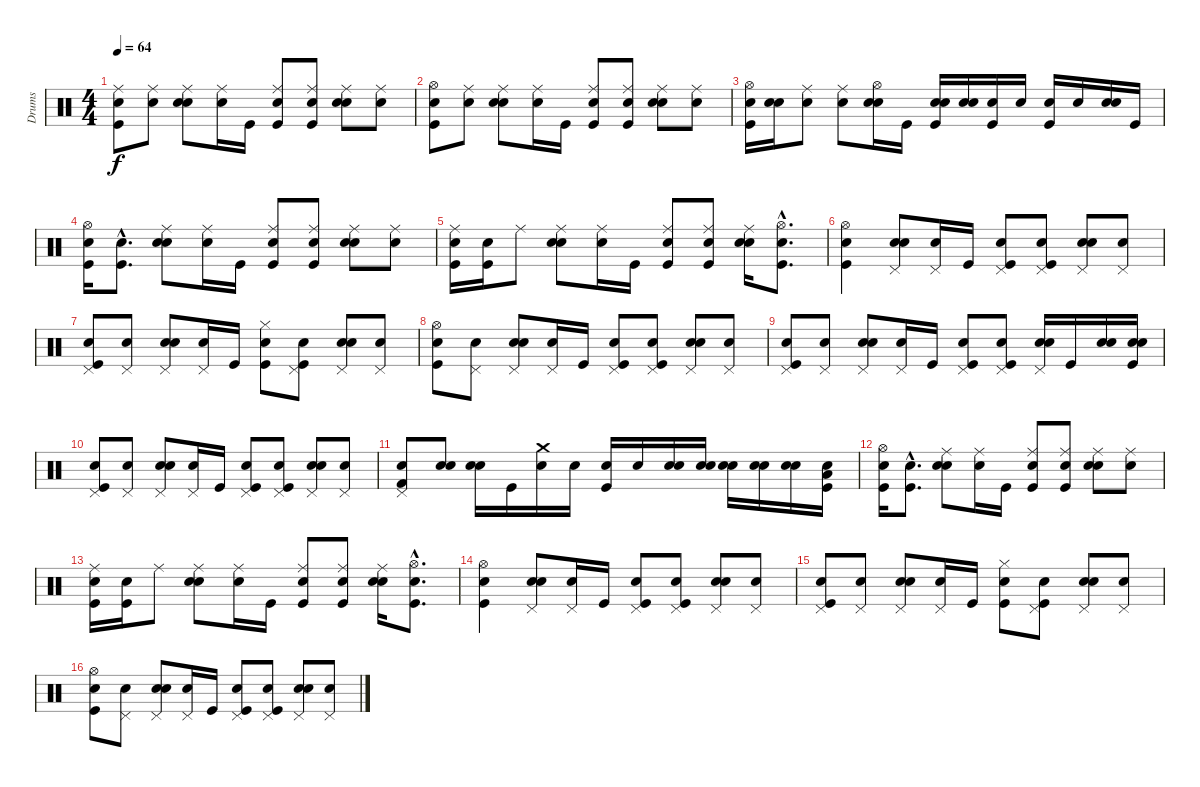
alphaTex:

\track ("Drums" "Drums") {instrument percussion}
\staff {score}
\articulation defaults
\ts (4 4)
\tempo 64
\clef neutral
\ks c
("Snare (hit)" "Ride (middle)" "Kick (hit)").8{dy f} ("Snare (hit)" "Ride (middle)").8 ("Snare (hit)" "Ride (middle)" "Snare (hit) 2").8 ("Snare (hit)" "Ride (middle)").16 "Kick (hit)".16 ("Snare (hit)" "Ride (middle)" "Kick (hit)").8 ("Snare (hit)" "Ride (middle)" "Kick (hit)").8 ("Snare (hit)" "Ride (middle)" "Snare (hit) 2").8 ("Snare (hit)" "Ride (middle)").8 |
("Snare (hit)" "Kick (hit)" "Hi-Hat (open)").8 ("Snare (hit)" "Ride (middle)").8 ("Snare (hit)" "Ride (middle)" "Snare (hit) 2").8 ("Snare (hit)" "Ride (middle)").16 "Kick (hit)".16 ("Snare (hit)" "Ride (middle)" "Kick (hit)").8 ("Snare (hit)" "Ride (middle)" "Kick (hit)").8 ("Snare (hit)" "Ride (middle)" "Snare (hit) 2").8 ("Snare (hit)" "Ride (middle)").8 |
("Snare (hit)" "Kick (hit)" "Hi-Hat (open)").16 ("Snare (hit)" "Snare (hit) 2").16 ("Snare (hit)" "Ride (middle)").8 ("Snare (hit)" "Ride (middle)").8 ("Snare (hit)" "Hi-Hat (open)" "Snare (hit) 2").16 "Kick (hit)".16 ("Snare (hit)" "Kick (hit)" "Snare (hit) 2").16 ("Snare (hit)" "Snare (hit) 2").16 ("Snare (hit)" "Kick (hit)").16 "Electric Snare (hit)".16 ("Snare (hit)" "Kick (hit)").16 "Electric Snare (hit)".16 ("Snare (hit)" "Snare (hit) 2").16 "Kick (hit)".16 |
("Snare (hit)" "Kick (hit)" "Hi-Hat (open)").16 ("Snare (hit)"{hac} "Kick (hit)"{hac}).8{d} ("Snare (hit)" "Ride (middle)" "Snare (hit) 2").8 ("Snare (hit)" "Ride (middle)").16 "Kick (hit)".16 ("Snare (hit)" "Kick (hit)" "Ride (middle)").8 ("Snare (hit)" "Kick (hit)" "Ride (middle)").8 ("Snare (hit)" "Ride (middle)" "Snare (hit) 2").8 ("Snare (hit)" "Ride (middle)").8 |
("Snare (hit)" "Kick (hit)" "Ride (middle)").16 ("Snare (hit)" "Kick (hit)").16 "Ride (middle)".8 ("Snare (hit)" "Ride (middle)" "Snare (hit) 2").8 ("Snare (hit)" "Ride (middle)").16 "Kick (hit)".16 ("Snare (hit)" "Kick (hit)" "Ride (middle)").8 ("Snare (hit)" "Kick (hit)" "Ride (middle)").8 ("Snare (hit)" "Ride (middle)" "Snare (hit) 2").16 ("Snare (hit)"{hac} "Kick (hit)"{hac} "Hi-Hat (open)"{hac}).8{d} |
("Snare (hit)" "Kick (hit)" "Hi-Hat (open)").4 ("Snare (hit)" "Pedal Hi-Hat (hit)" "Snare (hit) 2").8 ("Snare (hit)" "Pedal Hi-Hat (hit)").16 "Kick (hit)".16 ("Snare (hit)" "Kick (hit)" "Pedal Hi-Hat (hit)").8 ("Snare (hit)" "Kick (hit)" "Pedal Hi-Hat (hit)").8 ("Snare (hit)" "Pedal Hi-Hat (hit)" "Snare (hit) 2").8 ("Snare (hit)" "Pedal Hi-Hat (hit)").8 |
("Snare (hit)" "Kick (hit)" "Pedal Hi-Hat (hit)").8 ("Snare (hit)" "Pedal Hi-Hat (hit)").8 ("Snare (hit)" "Pedal Hi-Hat (hit)" "Snare (hit) 2").8 ("Snare (hit)" "Pedal Hi-Hat (hit)").16 "Kick (hit)".16 ("Snare (hit)" "Kick (hit)" "Hi-Hat (closed)").8 ("Snare (hit)" "Kick (hit)" "Pedal Hi-Hat (hit)").8 ("Snare (hit)" "Pedal Hi-Hat (hit)" "Snare (hit) 2").8 ("Snare (hit)" "Pedal Hi-Hat (hit)").8 |
("Snare (hit)" "Kick (hit)" "Hi-Hat (open)").8 ("Snare (hit)" "Pedal Hi-Hat (hit)").8 ("Snare (hit)" "Pedal Hi-Hat (hit)" "Snare (hit) 2").8 ("Snare (hit)" "Pedal Hi-Hat (hit)").16 "Kick (hit)".16 ("Snare (hit)" "Kick (hit)" "Pedal Hi-Hat (hit)").8 ("Snare (hit)" "Kick (hit)" "Pedal Hi-Hat (hit)").8 ("Snare (hit)" "Pedal Hi-Hat (hit)" "Snare (hit) 2").8 ("Snare (hit)" "Pedal Hi-Hat (hit)").8 |
("Snare (hit)" "Kick (hit)" "Pedal Hi-Hat (hit)").8 ("Snare (hit)" "Pedal Hi-Hat (hit)").8 ("Snare (hit)" "Pedal Hi-Hat (hit)" "Snare (hit) 2").8 ("Snare (hit)" "Pedal Hi-Hat (hit)").16 "Kick (hit)".16 ("Snare (hit)" "Kick (hit)" "Pedal Hi-Hat (hit)").8 ("Snare (hit)" "Kick (hit)" "Pedal Hi-Hat (hit)").8 ("Snare (hit)" "Pedal Hi-Hat (hit)" "Snare (hit) 2").16 "Kick (hit)".16 ("Snare (hit)" "Snare (hit) 2").16 ("Snare (hit)" "Kick (hit)" "Snare (hit) 2").16 |
("Snare (hit)" "Kick (hit)" "Pedal Hi-Hat (hit)").8 ("Snare (hit)" "Pedal Hi-Hat (hit)").8 ("Snare (hit)" "Pedal Hi-Hat (hit)" "Snare (hit) 2").8 ("Snare (hit)" "Pedal Hi-Hat (hit)").16 "Kick (hit)".16 ("Snare (hit)" "Kick (hit)" "Pedal Hi-Hat (hit)").8 ("Snare (hit)" "Kick (hit)" "Pedal Hi-Hat (hit)").8 ("Snare (hit)" "Pedal Hi-Hat (hit)" "Snare (hit) 2").8 ("Snare (hit)" "Pedal Hi-Hat (hit)").8 |
("Snare (hit)" "Pedal Hi-Hat (hit)" "Kick (hit) 2").8 ("Snare (hit)" "Snare (hit) 2").8 ("Snare (hit)" "Snare (hit) 2").16 "Kick (hit)".16 ("Snare (hit)" "Crash medium (hit)").16 "Snare (hit) 2".16 ("Snare (hit)" "Kick (hit)").16 "Snare (hit) 2".16 ("Snare (hit)" "Snare (hit) 2").16 ("Snare (hit)" "Electric Snare (hit)").16 ("Snare (hit)" "Electric Snare (hit)").16 ("Snare (hit)" "Electric Snare (hit)").16 ("Snare (hit)" "Snare (hit) 2").16 ("Snare (hit)" "Low Tom (hit)" "Kick (hit)").16 |
("Snare (hit)" "Kick (hit)" "Hi-Hat (open)").16 ("Snare (hit)"{hac} "Kick (hit)"{hac}).8{d} ("Snare (hit)" "Ride (middle)" "Snare (hit) 2").8 ("Snare (hit)" "Ride (middle)").16 "Kick (hit)".16 ("Snare (hit)" "Kick (hit)" "Ride (middle)").8 ("Snare (hit)" "Kick (hit)" "Ride (middle)").8 ("Snare (hit)" "Ride (middle)" "Snare (hit) 2").8 ("Snare (hit)" "Ride (middle)").8 |
("Snare (hit)" "Kick (hit)" "Ride (middle)").16 ("Snare (hit)" "Kick (hit)").16 "Ride (middle)".8 ("Snare (hit)" "Ride (middle)" "Snare (hit) 2").8 ("Snare (hit)" "Ride (middle)").16 "Kick (hit)".16 ("Snare (hit)" "Kick (hit)" "Ride (middle)").8 ("Snare (hit)" "Kick (hit)" "Ride (middle)").8 ("Snare (hit)" "Ride (middle)" "Snare (hit) 2").16 ("Snare (hit)"{hac} "Kick (hit)"{hac} "Hi-Hat (open)"{hac}).8{d} |
("Snare (hit)" "Kick (hit)" "Hi-Hat (open)").4 ("Snare (hit)" "Pedal Hi-Hat (hit)" "Snare (hit) 2").8 ("Snare (hit)" "Pedal Hi-Hat (hit)").16 "Kick (hit)".16 ("Snare (hit)" "Kick (hit)" "Pedal Hi-Hat (hit)").8 ("Snare (hit)" "Kick (hit)" "Pedal Hi-Hat (hit)").8 ("Snare (hit)" "Pedal Hi-Hat (hit)" "Snare (hit) 2").8 ("Snare (hit)" "Pedal Hi-Hat (hit)").8 |
("Snare (hit)" "Kick (hit)" "Pedal Hi-Hat (hit)").8 ("Snare (hit)" "Pedal Hi-Hat (hit)").8 ("Snare (hit)" "Pedal Hi-Hat (hit)" "Snare (hit) 2").8 ("Snare (hit)" "Pedal Hi-Hat (hit)").16 "Kick (hit)".16 ("Snare (hit)" "Kick (hit)" "Hi-Hat (closed)").8 ("Snare (hit)" "Kick (hit)" "Pedal Hi-Hat (hit)").8 ("Snare (hit)" "Pedal Hi-Hat (hit)" "Snare (hit) 2").8 ("Snare (hit)" "Pedal Hi-Hat (hit)").8 |
("Snare (hit)" "Kick (hit)" "Hi-Hat (open)").8 ("Snare (hit)" "Pedal Hi-Hat (hit)").8 ("Snare (hit)" "Pedal Hi-Hat (hit)" "Snare (hit) 2").8 ("Snare (hit)" "Pedal Hi-Hat (hit)").16 "Kick (hit)".16 ("Snare (hit)" "Kick (hit)" "Pedal Hi-Hat (hit)").8 ("Snare (hit)" "Kick (hit)" "Pedal Hi-Hat (hit)").8 ("Snare (hit)" "Pedal Hi-Hat (hit)" "Snare (hit) 2").8 ("Snare (hit)" "Pedal Hi-Hat (hit)").8
